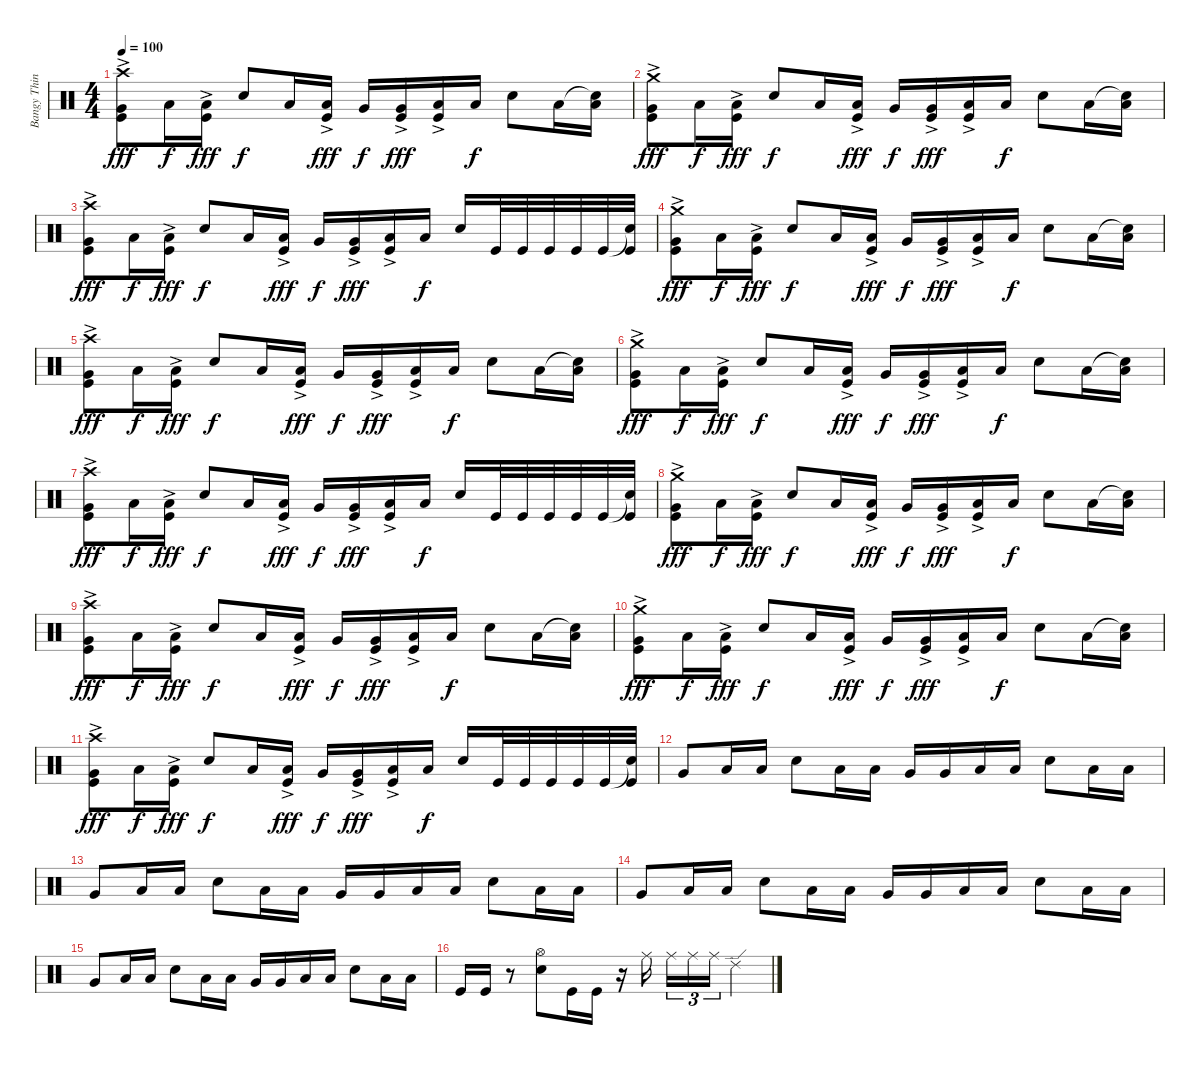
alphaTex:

\track ("Bangy Things" "Bangy Thin") {instrument percussion}
\staff {score}
\articulation defaults
\ts (4 4)
\tempo 100
\clef neutral
\ks c
("Crash high (hit)"{ac} "Very Low Tom (hit)" "Kick (hit)"{ac}).8{dy fff} "Low Floor Tom (hit)".16{dy f} ("Low Floor Tom (hit)" "Kick (hit)"{ac}).16{dy fff} "Electric Snare (hit)".8{dy f} "Low Floor Tom (hit)".16 ("Low Floor Tom (hit)" "Kick (hit)"{ac}).16{dy fff} "Very Low Tom (hit)".16{dy f} ("Very Low Tom (hit)" "Kick (hit)"{ac}).16{dy fff} ("Low Floor Tom (hit)" "Kick (hit)"{ac}).16 "Low Floor Tom (hit)".16{dy f} "Electric Snare (hit)".8 "Low Floor Tom (hit)".16 ("Snare (hit)"{t} "Low Floor Tom (hit)").16 |
("Crash medium (hit)"{ac} "Very Low Tom (hit)" "Kick (hit)"{ac}).8{dy fff} "Low Floor Tom (hit)".16{dy f} ("Low Floor Tom (hit)" "Kick (hit)"{ac}).16{dy fff} "Electric Snare (hit)".8{dy f} "Low Floor Tom (hit)".16 ("Low Floor Tom (hit)" "Kick (hit)"{ac}).16{dy fff} "Very Low Tom (hit)".16{dy f} ("Very Low Tom (hit)" "Kick (hit)"{ac}).16{dy fff} ("Low Floor Tom (hit)" "Kick (hit)"{ac}).16 "Low Floor Tom (hit)".16{dy f} "Electric Snare (hit)".8 "Low Floor Tom (hit)".16 ("Snare (hit)"{t} "Low Floor Tom (hit)").16 |
("Crash high (hit)"{ac} "Very Low Tom (hit)" "Kick (hit)"{ac}).8{dy fff} "Low Floor Tom (hit)".16{dy f} ("Low Floor Tom (hit)" "Kick (hit)"{ac}).16{dy fff} "Electric Snare (hit)".8{dy f} "Low Floor Tom (hit)".16 ("Low Floor Tom (hit)" "Kick (hit)"{ac}).16{dy fff} "Very Low Tom (hit)".16{dy f} ("Very Low Tom (hit)" "Kick (hit)"{ac}).16{dy fff} ("Low Floor Tom (hit)" "Kick (hit)"{ac}).16 "Low Floor Tom (hit)".16{dy f} "Electric Snare (hit)".16 "Kick (hit)".32 "Kick (hit)".32 "Kick (hit)".32 "Kick (hit)".32 "Kick (hit)".32 ("Snare (hit)"{t} "Kick (hit)").32 |
("Crash medium (hit)"{ac} "Very Low Tom (hit)" "Kick (hit)"{ac}).8{dy fff} "Low Floor Tom (hit)".16{dy f} ("Low Floor Tom (hit)" "Kick (hit)"{ac}).16{dy fff} "Electric Snare (hit)".8{dy f} "Low Floor Tom (hit)".16 ("Low Floor Tom (hit)" "Kick (hit)"{ac}).16{dy fff} "Very Low Tom (hit)".16{dy f} ("Very Low Tom (hit)" "Kick (hit)"{ac}).16{dy fff} ("Low Floor Tom (hit)" "Kick (hit)"{ac}).16 "Low Floor Tom (hit)".16{dy f} "Electric Snare (hit)".8 "Low Floor Tom (hit)".16 ("Snare (hit)"{t} "Low Floor Tom (hit)").16 |
("Crash high (hit)"{ac} "Very Low Tom (hit)" "Kick (hit)"{ac}).8{dy fff} "Low Floor Tom (hit)".16{dy f} ("Low Floor Tom (hit)" "Kick (hit)"{ac}).16{dy fff} "Electric Snare (hit)".8{dy f} "Low Floor Tom (hit)".16 ("Low Floor Tom (hit)" "Kick (hit)"{ac}).16{dy fff} "Very Low Tom (hit)".16{dy f} ("Very Low Tom (hit)" "Kick (hit)"{ac}).16{dy fff} ("Low Floor Tom (hit)" "Kick (hit)"{ac}).16 "Low Floor Tom (hit)".16{dy f} "Electric Snare (hit)".8 "Low Floor Tom (hit)".16 ("Snare (hit)"{t} "Low Floor Tom (hit)").16 |
("Crash medium (hit)"{ac} "Very Low Tom (hit)" "Kick (hit)"{ac}).8{dy fff} "Low Floor Tom (hit)".16{dy f} ("Low Floor Tom (hit)" "Kick (hit)"{ac}).16{dy fff} "Electric Snare (hit)".8{dy f} "Low Floor Tom (hit)".16 ("Low Floor Tom (hit)" "Kick (hit)"{ac}).16{dy fff} "Very Low Tom (hit)".16{dy f} ("Very Low Tom (hit)" "Kick (hit)"{ac}).16{dy fff} ("Low Floor Tom (hit)" "Kick (hit)"{ac}).16 "Low Floor Tom (hit)".16{dy f} "Electric Snare (hit)".8 "Low Floor Tom (hit)".16 ("Snare (hit)"{t} "Low Floor Tom (hit)").16 |
("Crash high (hit)"{ac} "Very Low Tom (hit)" "Kick (hit)"{ac}).8{dy fff} "Low Floor Tom (hit)".16{dy f} ("Low Floor Tom (hit)" "Kick (hit)"{ac}).16{dy fff} "Electric Snare (hit)".8{dy f} "Low Floor Tom (hit)".16 ("Low Floor Tom (hit)" "Kick (hit)"{ac}).16{dy fff} "Very Low Tom (hit)".16{dy f} ("Very Low Tom (hit)" "Kick (hit)"{ac}).16{dy fff} ("Low Floor Tom (hit)" "Kick (hit)"{ac}).16 "Low Floor Tom (hit)".16{dy f} "Electric Snare (hit)".16 "Kick (hit)".32 "Kick (hit)".32 "Kick (hit)".32 "Kick (hit)".32 "Kick (hit)".32 ("Snare (hit)"{t} "Kick (hit)").32 |
("Crash medium (hit)"{ac} "Very Low Tom (hit)" "Kick (hit)"{ac}).8{dy fff} "Low Floor Tom (hit)".16{dy f} ("Low Floor Tom (hit)" "Kick (hit)"{ac}).16{dy fff} "Electric Snare (hit)".8{dy f} "Low Floor Tom (hit)".16 ("Low Floor Tom (hit)" "Kick (hit)"{ac}).16{dy fff} "Very Low Tom (hit)".16{dy f} ("Very Low Tom (hit)" "Kick (hit)"{ac}).16{dy fff} ("Low Floor Tom (hit)" "Kick (hit)"{ac}).16 "Low Floor Tom (hit)".16{dy f} "Electric Snare (hit)".8 "Low Floor Tom (hit)".16 ("Snare (hit)"{t} "Low Floor Tom (hit)").16 |
("Crash high (hit)"{ac} "Very Low Tom (hit)" "Kick (hit)"{ac}).8{dy fff} "Low Floor Tom (hit)".16{dy f} ("Low Floor Tom (hit)" "Kick (hit)"{ac}).16{dy fff} "Electric Snare (hit)".8{dy f} "Low Floor Tom (hit)".16 ("Low Floor Tom (hit)" "Kick (hit)"{ac}).16{dy fff} "Very Low Tom (hit)".16{dy f} ("Very Low Tom (hit)" "Kick (hit)"{ac}).16{dy fff} ("Low Floor Tom (hit)" "Kick (hit)"{ac}).16 "Low Floor Tom (hit)".16{dy f} "Electric Snare (hit)".8 "Low Floor Tom (hit)".16 ("Snare (hit)"{t} "Low Floor Tom (hit)").16 |
("Crash medium (hit)"{ac} "Very Low Tom (hit)" "Kick (hit)"{ac}).8{dy fff} "Low Floor Tom (hit)".16{dy f} ("Low Floor Tom (hit)" "Kick (hit)"{ac}).16{dy fff} "Electric Snare (hit)".8{dy f} "Low Floor Tom (hit)".16 ("Low Floor Tom (hit)" "Kick (hit)"{ac}).16{dy fff} "Very Low Tom (hit)".16{dy f} ("Very Low Tom (hit)" "Kick (hit)"{ac}).16{dy fff} ("Low Floor Tom (hit)" "Kick (hit)"{ac}).16 "Low Floor Tom (hit)".16{dy f} "Electric Snare (hit)".8 "Low Floor Tom (hit)".16 ("Snare (hit)"{t} "Low Floor Tom (hit)").16 |
("Crash high (hit)"{ac} "Very Low Tom (hit)" "Kick (hit)"{ac}).8{dy fff} "Low Floor Tom (hit)".16{dy f} ("Low Floor Tom (hit)" "Kick (hit)"{ac}).16{dy fff} "Electric Snare (hit)".8{dy f} "Low Floor Tom (hit)".16 ("Low Floor Tom (hit)" "Kick (hit)"{ac}).16{dy fff} "Very Low Tom (hit)".16{dy f} ("Very Low Tom (hit)" "Kick (hit)"{ac}).16{dy fff} ("Low Floor Tom (hit)" "Kick (hit)"{ac}).16 "Low Floor Tom (hit)".16{dy f} "Electric Snare (hit)".16 "Kick (hit)".32 "Kick (hit)".32 "Kick (hit)".32 "Kick (hit)".32 "Kick (hit)".32 ("Snare (hit)"{t} "Kick (hit)").32 |
"Very Low Tom (hit)".8 "Low Floor Tom (hit)".16 "Low Floor Tom (hit)".16 "Electric Snare (hit)".8 "Low Floor Tom (hit)".16 "Low Floor Tom (hit)".16 "Very Low Tom (hit)".16 "Very Low Tom (hit)".16 "Low Floor Tom (hit)".16 "Low Floor Tom (hit)".16 "Electric Snare (hit)".8 "Low Floor Tom (hit)".16 "Low Floor Tom (hit)".16 |
"Very Low Tom (hit)".8 "Low Floor Tom (hit)".16 "Low Floor Tom (hit)".16 "Electric Snare (hit)".8 "Low Floor Tom (hit)".16 "Low Floor Tom (hit)".16 "Very Low Tom (hit)".16 "Very Low Tom (hit)".16 "Low Floor Tom (hit)".16 "Low Floor Tom (hit)".16 "Electric Snare (hit)".8 "Low Floor Tom (hit)".16 "Low Floor Tom (hit)".16 |
"Very Low Tom (hit)".8 "Low Floor Tom (hit)".16 "Low Floor Tom (hit)".16 "Electric Snare (hit)".8 "Low Floor Tom (hit)".16 "Low Floor Tom (hit)".16 "Very Low Tom (hit)".16 "Very Low Tom (hit)".16 "Low Floor Tom (hit)".16 "Low Floor Tom (hit)".16 "Electric Snare (hit)".8 "Low Floor Tom (hit)".16 "Low Floor Tom (hit)".16 |
"Very Low Tom (hit)".8 "Low Floor Tom (hit)".16 "Low Floor Tom (hit)".16 "Electric Snare (hit)".8 "Low Floor Tom (hit)".16 "Low Floor Tom (hit)".16 "Very Low Tom (hit)".16 "Very Low Tom (hit)".16 "Low Floor Tom (hit)".16 "Low Floor Tom (hit)".16 "Electric Snare (hit)".8 "Low Floor Tom (hit)".16 "Low Floor Tom (hit)".16 |
"Kick (hit)".16 "Kick (hit)".16 r.8 ("Hi-Hat (open)" "Electric Snare (hit)").8 "Kick (hit)".16 "Kick (hit)".16 r.16 "Ride (middle)".16 "Ride (middle)".16{tu (3 2)} "Ride (middle)".16{tu (3 2)} "Ride (middle)".16{tu (3 2)} "Ride (edge) 2".4
